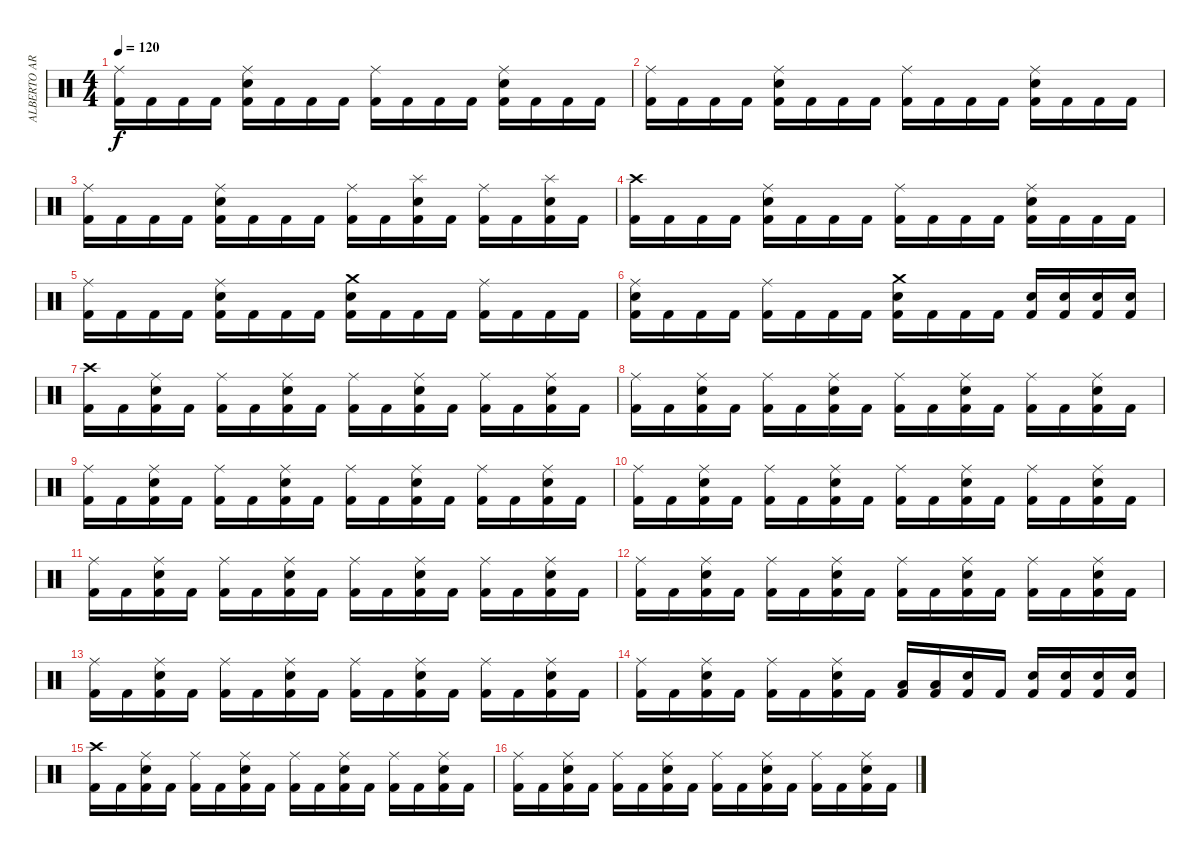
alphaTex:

\track ("ALBERTO ARDINES" "ALBERTO AR") {instrument percussion}
\staff {score}
\articulation defaults
\ts (4 4)
\tempo 120
\clef neutral
\ks c
("Ride (middle)" "Kick (hit) 2").16{dy f} "Kick (hit) 2".16 "Kick (hit) 2".16 "Kick (hit) 2".16 ("Ride (middle)" "Electric Snare (hit)" "Kick (hit) 2").16 "Kick (hit) 2".16 "Kick (hit) 2".16 "Kick (hit) 2".16 ("Ride (middle)" "Kick (hit) 2").16 "Kick (hit) 2".16 "Kick (hit) 2".16 "Kick (hit) 2".16 ("Ride (middle)" "Electric Snare (hit)" "Kick (hit) 2").16 "Kick (hit) 2".16 "Kick (hit) 2".16 "Kick (hit) 2".16 |
("Ride (middle)" "Kick (hit) 2").16 "Kick (hit) 2".16 "Kick (hit) 2".16 "Kick (hit) 2".16 ("Ride (middle)" "Electric Snare (hit)" "Kick (hit) 2").16 "Kick (hit) 2".16 "Kick (hit) 2".16 "Kick (hit) 2".16 ("Ride (middle)" "Kick (hit) 2").16 "Kick (hit) 2".16 "Kick (hit) 2".16 "Kick (hit) 2".16 ("Ride (middle)" "Electric Snare (hit)" "Kick (hit) 2").16 "Kick (hit) 2".16 "Kick (hit) 2".16 "Kick (hit) 2".16 |
("Ride (middle)" "Kick (hit) 2").16 "Kick (hit) 2".16 "Kick (hit) 2".16 "Kick (hit) 2".16 ("Ride (middle)" "Electric Snare (hit)" "Kick (hit) 2").16 "Kick (hit) 2".16 "Kick (hit) 2".16 "Kick (hit) 2".16 ("Ride (middle)" "Kick (hit) 2").16 "Kick (hit) 2".16 ("Splash (hit)" "Electric Snare (hit)" "Kick (hit) 2").16 "Kick (hit) 2".16 ("Ride (middle)" "Kick (hit) 2").16 "Kick (hit) 2".16 ("Splash (hit)" "Electric Snare (hit)" "Kick (hit) 2").16 "Kick (hit) 2".16 |
("Crash high (hit)" "Kick (hit) 2").16 "Kick (hit) 2".16 "Kick (hit) 2".16 "Kick (hit) 2".16 ("Ride (middle)" "Electric Snare (hit)" "Kick (hit) 2").16 "Kick (hit) 2".16 "Kick (hit) 2".16 "Kick (hit) 2".16 ("Ride (middle)" "Kick (hit) 2").16 "Kick (hit) 2".16 "Kick (hit) 2".16 "Kick (hit) 2".16 ("Ride (middle)" "Electric Snare (hit)" "Kick (hit) 2").16 "Kick (hit) 2".16 "Kick (hit) 2".16 "Kick (hit) 2".16 |
("Ride (middle)" "Kick (hit) 2").16 "Kick (hit) 2".16 "Kick (hit) 2".16 "Kick (hit) 2".16 ("Ride (middle)" "Electric Snare (hit)" "Kick (hit) 2").16 "Kick (hit) 2".16 "Kick (hit) 2".16 "Kick (hit) 2".16 ("Crash medium (hit)" "Electric Snare (hit)" "Kick (hit) 2").16 "Kick (hit) 2".16 "Kick (hit) 2".16 "Kick (hit) 2".16 ("Ride (middle)" "Kick (hit) 2").16 "Kick (hit) 2".16 "Kick (hit) 2".16 "Kick (hit) 2".16 |
("Ride (middle)" "Electric Snare (hit)" "Kick (hit) 2").16 "Kick (hit) 2".16 "Kick (hit) 2".16 "Kick (hit) 2".16 ("Ride (middle)" "Kick (hit) 2").16 "Kick (hit) 2".16 "Kick (hit) 2".16 "Kick (hit) 2".16 ("Crash medium (hit)" "Electric Snare (hit)" "Kick (hit) 2").16 "Kick (hit) 2".16 "Kick (hit) 2".16 "Kick (hit) 2".16 ("Electric Snare (hit)" "Kick (hit) 2").16 ("Electric Snare (hit)" "Kick (hit) 2").16 ("Electric Snare (hit)" "Kick (hit) 2").16 ("Electric Snare (hit)" "Kick (hit) 2").16 |
("Crash high (hit)" "Kick (hit) 2").16 "Kick (hit) 2".16 ("Ride (middle)" "Electric Snare (hit)" "Kick (hit) 2").16 "Kick (hit) 2".16 ("Ride (middle)" "Kick (hit) 2").16 "Kick (hit) 2".16 ("Ride (middle)" "Electric Snare (hit)" "Kick (hit) 2").16 "Kick (hit) 2".16 ("Ride (middle)" "Kick (hit) 2").16 "Kick (hit) 2".16 ("Ride (middle)" "Electric Snare (hit)" "Kick (hit) 2").16 "Kick (hit) 2".16 ("Ride (middle)" "Kick (hit) 2").16 "Kick (hit) 2".16 ("Ride (middle)" "Electric Snare (hit)" "Kick (hit) 2").16 "Kick (hit) 2".16 |
("Ride (middle)" "Kick (hit) 2").16 "Kick (hit) 2".16 ("Ride (middle)" "Electric Snare (hit)" "Kick (hit) 2").16 "Kick (hit) 2".16 ("Ride (middle)" "Kick (hit) 2").16 "Kick (hit) 2".16 ("Ride (middle)" "Electric Snare (hit)" "Kick (hit) 2").16 "Kick (hit) 2".16 ("Ride (middle)" "Kick (hit) 2").16 "Kick (hit) 2".16 ("Ride (middle)" "Electric Snare (hit)" "Kick (hit) 2").16 "Kick (hit) 2".16 ("Ride (middle)" "Kick (hit) 2").16 "Kick (hit) 2".16 ("Ride (middle)" "Electric Snare (hit)" "Kick (hit) 2").16 "Kick (hit) 2".16 |
("Ride (middle)" "Kick (hit) 2").16 "Kick (hit) 2".16 ("Ride (middle)" "Electric Snare (hit)" "Kick (hit) 2").16 "Kick (hit) 2".16 ("Ride (middle)" "Kick (hit) 2").16 "Kick (hit) 2".16 ("Ride (middle)" "Electric Snare (hit)" "Kick (hit) 2").16 "Kick (hit) 2".16 ("Ride (middle)" "Kick (hit) 2").16 "Kick (hit) 2".16 ("Ride (middle)" "Electric Snare (hit)" "Kick (hit) 2").16 "Kick (hit) 2".16 ("Ride (middle)" "Kick (hit) 2").16 "Kick (hit) 2".16 ("Ride (middle)" "Electric Snare (hit)" "Kick (hit) 2").16 "Kick (hit) 2".16 |
("Ride (middle)" "Kick (hit) 2").16 "Kick (hit) 2".16 ("Ride (middle)" "Electric Snare (hit)" "Kick (hit) 2").16 "Kick (hit) 2".16 ("Ride (middle)" "Kick (hit) 2").16 "Kick (hit) 2".16 ("Ride (middle)" "Electric Snare (hit)" "Kick (hit) 2").16 "Kick (hit) 2".16 ("Ride (middle)" "Kick (hit) 2").16 "Kick (hit) 2".16 ("Ride (middle)" "Electric Snare (hit)" "Kick (hit) 2").16 "Kick (hit) 2".16 ("Ride (middle)" "Kick (hit) 2").16 "Kick (hit) 2".16 ("Ride (middle)" "Electric Snare (hit)" "Kick (hit) 2").16 "Kick (hit) 2".16 |
("Ride (middle)" "Kick (hit) 2").16 "Kick (hit) 2".16 ("Ride (middle)" "Electric Snare (hit)" "Kick (hit) 2").16 "Kick (hit) 2".16 ("Ride (middle)" "Kick (hit) 2").16 "Kick (hit) 2".16 ("Ride (middle)" "Electric Snare (hit)" "Kick (hit) 2").16 "Kick (hit) 2".16 ("Ride (middle)" "Kick (hit) 2").16 "Kick (hit) 2".16 ("Ride (middle)" "Electric Snare (hit)" "Kick (hit) 2").16 "Kick (hit) 2".16 ("Ride (middle)" "Kick (hit) 2").16 "Kick (hit) 2".16 ("Ride (middle)" "Electric Snare (hit)" "Kick (hit) 2").16 "Kick (hit) 2".16 |
("Ride (middle)" "Kick (hit) 2").16 "Kick (hit) 2".16 ("Ride (middle)" "Electric Snare (hit)" "Kick (hit) 2").16 "Kick (hit) 2".16 ("Ride (middle)" "Kick (hit) 2").16 "Kick (hit) 2".16 ("Ride (middle)" "Electric Snare (hit)" "Kick (hit) 2").16 "Kick (hit) 2".16 ("Ride (middle)" "Kick (hit) 2").16 "Kick (hit) 2".16 ("Ride (middle)" "Electric Snare (hit)" "Kick (hit) 2").16 "Kick (hit) 2".16 ("Ride (middle)" "Kick (hit) 2").16 "Kick (hit) 2".16 ("Ride (middle)" "Electric Snare (hit)" "Kick (hit) 2").16 "Kick (hit) 2".16 |
("Ride (middle)" "Kick (hit) 2").16 "Kick (hit) 2".16 ("Ride (middle)" "Electric Snare (hit)" "Kick (hit) 2").16 "Kick (hit) 2".16 ("Ride (middle)" "Kick (hit) 2").16 "Kick (hit) 2".16 ("Ride (middle)" "Electric Snare (hit)" "Kick (hit) 2").16 "Kick (hit) 2".16 ("Ride (middle)" "Kick (hit) 2").16 "Kick (hit) 2".16 ("Ride (middle)" "Electric Snare (hit)" "Kick (hit) 2").16 "Kick (hit) 2".16 ("Ride (middle)" "Kick (hit) 2").16 "Kick (hit) 2".16 ("Ride (middle)" "Electric Snare (hit)" "Kick (hit) 2").16 "Kick (hit) 2".16 |
("Ride (middle)" "Kick (hit) 2").16 "Kick (hit) 2".16 ("Ride (middle)" "Electric Snare (hit)" "Kick (hit) 2").16 "Kick (hit) 2".16 ("Ride (middle)" "Kick (hit) 2").16 "Kick (hit) 2".16 ("Ride (middle)" "Electric Snare (hit)" "Kick (hit) 2").16 "Kick (hit) 2".16 ("Low Tom (hit)" "Kick (hit) 2").16 ("Low Tom (hit)" "Kick (hit) 2").16 ("Electric Snare (hit)" "Kick (hit) 2").16 "Kick (hit) 2".16 ("Electric Snare (hit)" "Kick (hit) 2").16 ("Electric Snare (hit)" "Kick (hit) 2").16 ("Electric Snare (hit)" "Kick (hit) 2").16 ("Electric Snare (hit)" "Kick (hit) 2").16 |
("Crash high (hit)" "Kick (hit) 2").16 "Kick (hit) 2".16 ("Ride (middle)" "Electric Snare (hit)" "Kick (hit) 2").16 "Kick (hit) 2".16 ("Ride (middle)" "Kick (hit) 2").16 "Kick (hit) 2".16 ("Ride (middle)" "Electric Snare (hit)" "Kick (hit) 2").16 "Kick (hit) 2".16 ("Ride (middle)" "Kick (hit) 2").16 "Kick (hit) 2".16 ("Ride (middle)" "Electric Snare (hit)" "Kick (hit) 2").16 "Kick (hit) 2".16 ("Ride (middle)" "Kick (hit) 2").16 "Kick (hit) 2".16 ("Ride (middle)" "Electric Snare (hit)" "Kick (hit) 2").16 "Kick (hit) 2".16 |
("Ride (middle)" "Kick (hit) 2").16 "Kick (hit) 2".16 ("Ride (middle)" "Electric Snare (hit)" "Kick (hit) 2").16 "Kick (hit) 2".16 ("Ride (middle)" "Kick (hit) 2").16 "Kick (hit) 2".16 ("Ride (middle)" "Electric Snare (hit)" "Kick (hit) 2").16 "Kick (hit) 2".16 ("Ride (middle)" "Kick (hit) 2").16 "Kick (hit) 2".16 ("Ride (middle)" "Electric Snare (hit)" "Kick (hit) 2").16 "Kick (hit) 2".16 ("Ride (middle)" "Kick (hit) 2").16 "Kick (hit) 2".16 ("Ride (middle)" "Electric Snare (hit)" "Kick (hit) 2").16 "Kick (hit) 2".16
